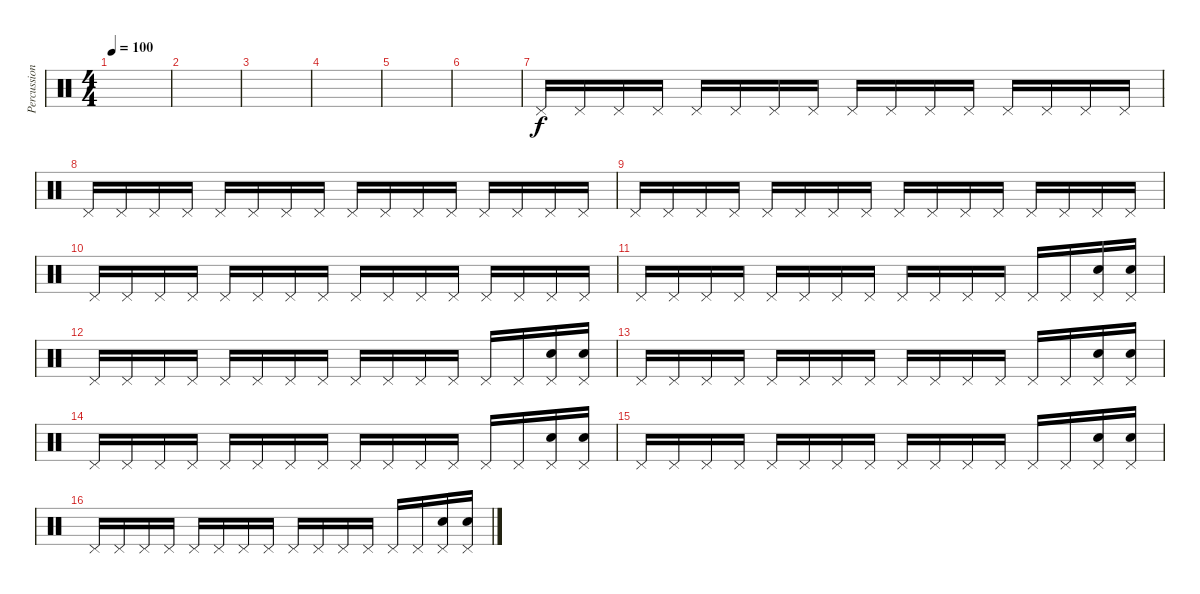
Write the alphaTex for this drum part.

\track ("Percussions" "Percussion") {instrument percussion}
\staff {score}
\articulation defaults
\ts (4 4)
\tempo 100
\clef neutral
\ks c
|
|
|
|
|
|
"Pedal Hi-Hat (hit)".16 "Pedal Hi-Hat (hit)".16 "Pedal Hi-Hat (hit)".16 "Pedal Hi-Hat (hit)".16 "Pedal Hi-Hat (hit)".16 "Pedal Hi-Hat (hit)".16 "Pedal Hi-Hat (hit)".16 "Pedal Hi-Hat (hit)".16 "Pedal Hi-Hat (hit)".16 "Pedal Hi-Hat (hit)".16 "Pedal Hi-Hat (hit)".16 "Pedal Hi-Hat (hit)".16 "Pedal Hi-Hat (hit)".16 "Pedal Hi-Hat (hit)".16 "Pedal Hi-Hat (hit)".16 "Pedal Hi-Hat (hit)".16 |
"Pedal Hi-Hat (hit)".16 "Pedal Hi-Hat (hit)".16 "Pedal Hi-Hat (hit)".16 "Pedal Hi-Hat (hit)".16 "Pedal Hi-Hat (hit)".16 "Pedal Hi-Hat (hit)".16 "Pedal Hi-Hat (hit)".16 "Pedal Hi-Hat (hit)".16 "Pedal Hi-Hat (hit)".16 "Pedal Hi-Hat (hit)".16 "Pedal Hi-Hat (hit)".16 "Pedal Hi-Hat (hit)".16 "Pedal Hi-Hat (hit)".16 "Pedal Hi-Hat (hit)".16 "Pedal Hi-Hat (hit)".16 "Pedal Hi-Hat (hit)".16 |
"Pedal Hi-Hat (hit)".16 "Pedal Hi-Hat (hit)".16 "Pedal Hi-Hat (hit)".16 "Pedal Hi-Hat (hit)".16 "Pedal Hi-Hat (hit)".16 "Pedal Hi-Hat (hit)".16 "Pedal Hi-Hat (hit)".16 "Pedal Hi-Hat (hit)".16 "Pedal Hi-Hat (hit)".16 "Pedal Hi-Hat (hit)".16 "Pedal Hi-Hat (hit)".16 "Pedal Hi-Hat (hit)".16 "Pedal Hi-Hat (hit)".16 "Pedal Hi-Hat (hit)".16 "Pedal Hi-Hat (hit)".16 "Pedal Hi-Hat (hit)".16 |
"Pedal Hi-Hat (hit)".16 "Pedal Hi-Hat (hit)".16 "Pedal Hi-Hat (hit)".16 "Pedal Hi-Hat (hit)".16 "Pedal Hi-Hat (hit)".16 "Pedal Hi-Hat (hit)".16 "Pedal Hi-Hat (hit)".16 "Pedal Hi-Hat (hit)".16 "Pedal Hi-Hat (hit)".16 "Pedal Hi-Hat (hit)".16 "Pedal Hi-Hat (hit)".16 "Pedal Hi-Hat (hit)".16 "Pedal Hi-Hat (hit)".16 "Pedal Hi-Hat (hit)".16 "Pedal Hi-Hat (hit)".16 "Pedal Hi-Hat (hit)".16 |
"Pedal Hi-Hat (hit)".16 "Pedal Hi-Hat (hit)".16 "Pedal Hi-Hat (hit)".16 "Pedal Hi-Hat (hit)".16 "Pedal Hi-Hat (hit)".16 "Pedal Hi-Hat (hit)".16 "Pedal Hi-Hat (hit)".16 "Pedal Hi-Hat (hit)".16 "Pedal Hi-Hat (hit)".16 "Pedal Hi-Hat (hit)".16 "Pedal Hi-Hat (hit)".16 "Pedal Hi-Hat (hit)".16 "Pedal Hi-Hat (hit)".16 "Pedal Hi-Hat (hit)".16 ("Pedal Hi-Hat (hit)" "Electric Snare (hit)").16 ("Pedal Hi-Hat (hit)" "Electric Snare (hit)").16 |
"Pedal Hi-Hat (hit)".16 "Pedal Hi-Hat (hit)".16 "Pedal Hi-Hat (hit)".16 "Pedal Hi-Hat (hit)".16 "Pedal Hi-Hat (hit)".16 "Pedal Hi-Hat (hit)".16 "Pedal Hi-Hat (hit)".16 "Pedal Hi-Hat (hit)".16 "Pedal Hi-Hat (hit)".16 "Pedal Hi-Hat (hit)".16 "Pedal Hi-Hat (hit)".16 "Pedal Hi-Hat (hit)".16 "Pedal Hi-Hat (hit)".16 "Pedal Hi-Hat (hit)".16 ("Pedal Hi-Hat (hit)" "Electric Snare (hit)").16 ("Pedal Hi-Hat (hit)" "Electric Snare (hit)").16 |
"Pedal Hi-Hat (hit)".16 "Pedal Hi-Hat (hit)".16 "Pedal Hi-Hat (hit)".16 "Pedal Hi-Hat (hit)".16 "Pedal Hi-Hat (hit)".16 "Pedal Hi-Hat (hit)".16 "Pedal Hi-Hat (hit)".16 "Pedal Hi-Hat (hit)".16 "Pedal Hi-Hat (hit)".16 "Pedal Hi-Hat (hit)".16 "Pedal Hi-Hat (hit)".16 "Pedal Hi-Hat (hit)".16 "Pedal Hi-Hat (hit)".16 "Pedal Hi-Hat (hit)".16 ("Pedal Hi-Hat (hit)" "Electric Snare (hit)").16 ("Pedal Hi-Hat (hit)" "Electric Snare (hit)").16 |
"Pedal Hi-Hat (hit)".16 "Pedal Hi-Hat (hit)".16 "Pedal Hi-Hat (hit)".16 "Pedal Hi-Hat (hit)".16 "Pedal Hi-Hat (hit)".16 "Pedal Hi-Hat (hit)".16 "Pedal Hi-Hat (hit)".16 "Pedal Hi-Hat (hit)".16 "Pedal Hi-Hat (hit)".16 "Pedal Hi-Hat (hit)".16 "Pedal Hi-Hat (hit)".16 "Pedal Hi-Hat (hit)".16 "Pedal Hi-Hat (hit)".16 "Pedal Hi-Hat (hit)".16 ("Pedal Hi-Hat (hit)" "Electric Snare (hit)").16 ("Pedal Hi-Hat (hit)" "Electric Snare (hit)").16 |
"Pedal Hi-Hat (hit)".16 "Pedal Hi-Hat (hit)".16 "Pedal Hi-Hat (hit)".16 "Pedal Hi-Hat (hit)".16 "Pedal Hi-Hat (hit)".16 "Pedal Hi-Hat (hit)".16 "Pedal Hi-Hat (hit)".16 "Pedal Hi-Hat (hit)".16 "Pedal Hi-Hat (hit)".16 "Pedal Hi-Hat (hit)".16 "Pedal Hi-Hat (hit)".16 "Pedal Hi-Hat (hit)".16 "Pedal Hi-Hat (hit)".16 "Pedal Hi-Hat (hit)".16 ("Pedal Hi-Hat (hit)" "Electric Snare (hit)").16 ("Pedal Hi-Hat (hit)" "Electric Snare (hit)").16 |
"Pedal Hi-Hat (hit)".16 "Pedal Hi-Hat (hit)".16 "Pedal Hi-Hat (hit)".16 "Pedal Hi-Hat (hit)".16 "Pedal Hi-Hat (hit)".16 "Pedal Hi-Hat (hit)".16 "Pedal Hi-Hat (hit)".16 "Pedal Hi-Hat (hit)".16 "Pedal Hi-Hat (hit)".16 "Pedal Hi-Hat (hit)".16 "Pedal Hi-Hat (hit)".16 "Pedal Hi-Hat (hit)".16 "Pedal Hi-Hat (hit)".16 "Pedal Hi-Hat (hit)".16 ("Pedal Hi-Hat (hit)" "Electric Snare (hit)").16 ("Pedal Hi-Hat (hit)" "Electric Snare (hit)").16
